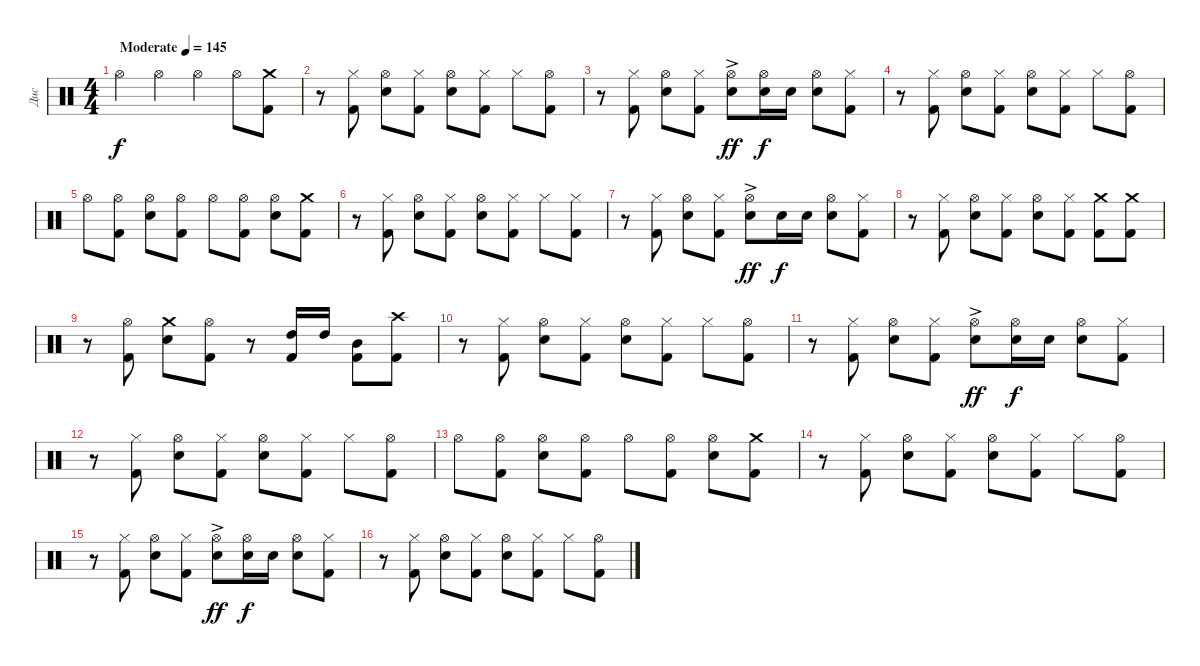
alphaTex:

\track ("Дис" "Дис") {instrument percussion}
\staff {score}
\articulation defaults
\ts (4 4)
\tempo (145 "Moderate")
\clef neutral
\ks c "Hi-Hat (open)".4{dy f} "Hi-Hat (open)".4 "Hi-Hat (open)".4 "Hi-Hat (open)".8
("Crash medium (hit)" "Kick (hit) 2").8 |
r.8 ("Hi-Hat (closed)" "Kick (hit) 2").8 ("Hi-Hat (open)" "Electric Snare (hit)").8 ("Hi-Hat (closed)" "Kick (hit) 2").8 ("Hi-Hat (open)" "Electric Snare (hit)").8 ("Hi-Hat (closed)" "Kick (hit) 2").8 "Hi-Hat (closed)".8 ("Hi-Hat (open)" "Kick (hit) 2").8 |
r.8 ("Hi-Hat (closed)" "Kick (hit) 2").8 ("Hi-Hat (open)" "Electric Snare (hit)").8 ("Hi-Hat (closed)" "Kick (hit) 2").8 ("Hi-Hat (open)" "Electric Snare (hit)"{ac}).8{dy ff} ("Hi-Hat (open)" "Electric Snare (hit)").16{dy f} "Electric Snare (hit)".16 ("Hi-Hat (open)" "Electric Snare (hit)").8 ("Hi-Hat (closed)" "Kick (hit) 2").8 |
r.8 ("Hi-Hat (closed)" "Kick (hit) 2").8 ("Hi-Hat (open)" "Electric Snare (hit)").8 ("Hi-Hat (closed)" "Kick (hit) 2").8 ("Hi-Hat (open)" "Electric Snare (hit)").8 ("Hi-Hat (closed)" "Kick (hit) 2").8 "Hi-Hat (closed)".8 ("Hi-Hat (open)" "Kick (hit) 2").8 |
"Hi-Hat (open)".8 ("Hi-Hat (open)" "Kick (hit) 2").8 ("Hi-Hat (open)" "Electric Snare (hit)").8 ("Hi-Hat (open)" "Kick (hit) 2").8 "Hi-Hat (open)".8 ("Hi-Hat (open)" "Kick (hit) 2").8 ("Hi-Hat (open)" "Electric Snare (hit)").8 ("Crash medium (hit)" "Kick (hit) 2").8 |
r.8 ("Hi-Hat (closed)" "Kick (hit) 2").8 ("Hi-Hat (open)" "Electric Snare (hit)").8 ("Hi-Hat (closed)" "Kick (hit) 2").8 ("Hi-Hat (open)" "Electric Snare (hit)").8 ("Hi-Hat (closed)" "Kick (hit) 2").8 "Hi-Hat (closed)".8 ("Hi-Hat (closed)" "Kick (hit) 2").8 |
r.8 ("Hi-Hat (closed)" "Kick (hit) 2").8 ("Hi-Hat (open)" "Electric Snare (hit)").8 ("Hi-Hat (closed)" "Kick (hit) 2").8 ("Hi-Hat (open)" "Electric Snare (hit)"{ac}).8{dy ff} "Electric Snare (hit)".16{dy f} "Electric Snare (hit)".16 ("Hi-Hat (open)" "Electric Snare (hit)").8 ("Hi-Hat (closed)" "Kick (hit) 2").8 |
r.8 ("Hi-Hat (closed)" "Kick (hit) 2").8 ("Hi-Hat (open)" "Electric Snare (hit)").8 ("Hi-Hat (closed)" "Kick (hit) 2").8 ("Hi-Hat (open)" "Electric Snare (hit)").8 ("Hi-Hat (closed)" "Kick (hit) 2").8 ("Crash medium (hit)" "Kick (hit) 2").8 ("Crash medium (hit)" "Kick (hit) 2").8 |
r.8 ("Hi-Hat (open)" "Kick (hit) 2").8 ("Crash medium (hit)" "Electric Snare (hit)").8 ("Hi-Hat (open)" "Kick (hit) 2").8 r.8 ("High Tom (hit)" "Kick (hit) 2").16 "High Tom (hit)".16 ("Mid Tom (hit)" "Kick (hit) 2").8 ("Crash high (hit)" "Kick (hit) 2").8 |
r.8 ("Hi-Hat (closed)" "Kick (hit) 2").8 ("Hi-Hat (open)" "Electric Snare (hit)").8 ("Hi-Hat (closed)" "Kick (hit) 2").8 ("Hi-Hat (open)" "Electric Snare (hit)").8 ("Hi-Hat (closed)" "Kick (hit) 2").8 "Hi-Hat (closed)".8 ("Hi-Hat (open)" "Kick (hit) 2").8 |
r.8 ("Hi-Hat (closed)" "Kick (hit) 2").8 ("Hi-Hat (open)" "Electric Snare (hit)").8 ("Hi-Hat (closed)" "Kick (hit) 2").8 ("Hi-Hat (open)" "Electric Snare (hit)"{ac}).8{dy ff} ("Hi-Hat (open)" "Electric Snare (hit)").16{dy f} "Electric Snare (hit)".16 ("Hi-Hat (open)" "Electric Snare (hit)").8 ("Hi-Hat (closed)" "Kick (hit) 2").8 |
r.8 ("Hi-Hat (closed)" "Kick (hit) 2").8 ("Hi-Hat (open)" "Electric Snare (hit)").8 ("Hi-Hat (closed)" "Kick (hit) 2").8 ("Hi-Hat (open)" "Electric Snare (hit)").8 ("Hi-Hat (closed)" "Kick (hit) 2").8 "Hi-Hat (closed)".8 ("Hi-Hat (open)" "Kick (hit) 2").8 |
"Hi-Hat (open)".8 ("Hi-Hat (open)" "Kick (hit) 2").8 ("Hi-Hat (open)" "Electric Snare (hit)").8 ("Hi-Hat (open)" "Kick (hit) 2").8 "Hi-Hat (open)".8 ("Hi-Hat (open)" "Kick (hit) 2").8 ("Hi-Hat (open)" "Electric Snare (hit)").8 ("Crash medium (hit)" "Kick (hit) 2").8 |
r.8 ("Hi-Hat (closed)" "Kick (hit) 2").8 ("Hi-Hat (open)" "Electric Snare (hit)").8 ("Hi-Hat (closed)" "Kick (hit) 2").8 ("Hi-Hat (open)" "Electric Snare (hit)").8 ("Hi-Hat (closed)" "Kick (hit) 2").8 "Hi-Hat (closed)".8 ("Hi-Hat (open)" "Kick (hit) 2").8 |
r.8 ("Hi-Hat (closed)" "Kick (hit) 2").8 ("Hi-Hat (open)" "Electric Snare (hit)").8 ("Hi-Hat (closed)" "Kick (hit) 2").8 ("Hi-Hat (open)" "Electric Snare (hit)"{ac}).8{dy ff} ("Hi-Hat (open)" "Electric Snare (hit)").16{dy f} "Electric Snare (hit)".16 ("Hi-Hat (open)" "Electric Snare (hit)").8 ("Hi-Hat (closed)" "Kick (hit) 2").8 |
r.8 ("Hi-Hat (closed)" "Kick (hit) 2").8 ("Hi-Hat (open)" "Electric Snare (hit)").8 ("Hi-Hat (closed)" "Kick (hit) 2").8 ("Hi-Hat (open)" "Electric Snare (hit)").8 ("Hi-Hat (closed)" "Kick (hit) 2").8 "Hi-Hat (closed)".8 ("Hi-Hat (open)" "Kick (hit) 2").8
